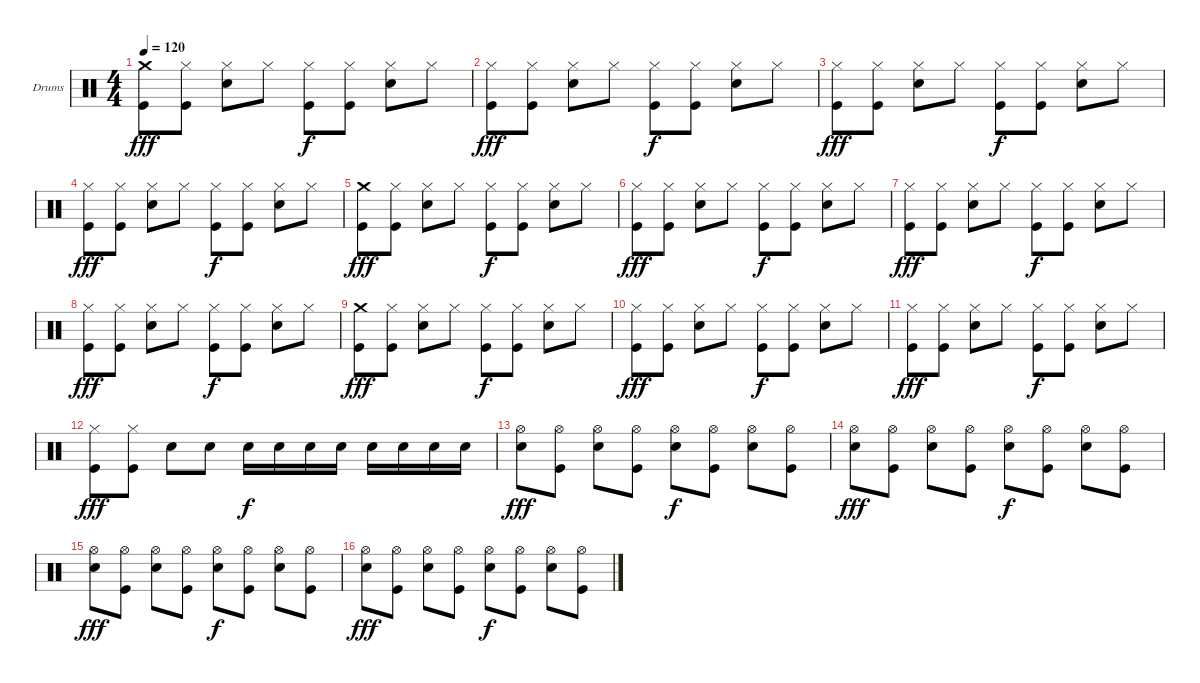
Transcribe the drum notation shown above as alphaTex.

\defaultSystemsLayout 4
\bracketExtendMode groupsimilarinstruments
\firstSystemTrackNameOrientation horizontal
\otherSystemsTrackNameOrientation horizontal
\track ("Drumkit" "Drums") {instrument percussion}
\staff {score}
\articulation defaults
\ts (4 4)
\tempo 120
\clef neutral
\ks c
("Crash medium (hit)" "Kick (hit)").8{dy fff} ("Hi-Hat (closed)" "Kick (hit)").8 ("Hi-Hat (closed)" "Snare (hit) 2").8 "Hi-Hat (closed)".8 ("Hi-Hat (closed)" "Kick (hit)").8{dy f} ("Hi-Hat (closed)" "Kick (hit)").8 ("Hi-Hat (closed)" "Snare (hit) 2").8 "Hi-Hat (closed)".8 |
("Hi-Hat (closed)" "Kick (hit)").8{dy fff} ("Hi-Hat (closed)" "Kick (hit)").8 ("Hi-Hat (closed)" "Snare (hit) 2").8 "Hi-Hat (closed)".8 ("Hi-Hat (closed)" "Kick (hit)").8{dy f} ("Hi-Hat (closed)" "Kick (hit)").8 ("Hi-Hat (closed)" "Snare (hit) 2").8 "Hi-Hat (closed)".8 |
("Hi-Hat (closed)" "Kick (hit)").8{dy fff} ("Hi-Hat (closed)" "Kick (hit)").8 ("Hi-Hat (closed)" "Snare (hit) 2").8 "Hi-Hat (closed)".8 ("Hi-Hat (closed)" "Kick (hit)").8{dy f} ("Hi-Hat (closed)" "Kick (hit)").8 ("Hi-Hat (closed)" "Snare (hit) 2").8 "Hi-Hat (closed)".8 |
("Hi-Hat (closed)" "Kick (hit)").8{dy fff} ("Hi-Hat (closed)" "Kick (hit)").8 ("Hi-Hat (closed)" "Snare (hit) 2").8 "Hi-Hat (closed)".8 ("Hi-Hat (closed)" "Kick (hit)").8{dy f} ("Hi-Hat (closed)" "Kick (hit)").8 ("Hi-Hat (closed)" "Snare (hit) 2").8 "Hi-Hat (closed)".8 |
("Crash medium (hit)" "Kick (hit)").8{dy fff} ("Hi-Hat (closed)" "Kick (hit)").8 ("Hi-Hat (closed)" "Snare (hit) 2").8 "Hi-Hat (closed)".8 ("Hi-Hat (closed)" "Kick (hit)").8{dy f} ("Hi-Hat (closed)" "Kick (hit)").8 ("Hi-Hat (closed)" "Snare (hit) 2").8 "Hi-Hat (closed)".8 |
("Hi-Hat (closed)" "Kick (hit)").8{dy fff} ("Hi-Hat (closed)" "Kick (hit)").8 ("Hi-Hat (closed)" "Snare (hit) 2").8 "Hi-Hat (closed)".8 ("Hi-Hat (closed)" "Kick (hit)").8{dy f} ("Hi-Hat (closed)" "Kick (hit)").8 ("Hi-Hat (closed)" "Snare (hit) 2").8 "Hi-Hat (closed)".8 |
("Hi-Hat (closed)" "Kick (hit)").8{dy fff} ("Hi-Hat (closed)" "Kick (hit)").8 ("Hi-Hat (closed)" "Snare (hit) 2").8 "Hi-Hat (closed)".8 ("Hi-Hat (closed)" "Kick (hit)").8{dy f} ("Hi-Hat (closed)" "Kick (hit)").8 ("Hi-Hat (closed)" "Snare (hit) 2").8 "Hi-Hat (closed)".8 |
("Hi-Hat (closed)" "Kick (hit)").8{dy fff} ("Hi-Hat (closed)" "Kick (hit)").8 ("Hi-Hat (closed)" "Snare (hit) 2").8 "Hi-Hat (closed)".8 ("Hi-Hat (closed)" "Kick (hit)").8{dy f} ("Hi-Hat (closed)" "Kick (hit)").8 ("Hi-Hat (closed)" "Snare (hit) 2").8 "Hi-Hat (closed)".8 |
("Crash medium (hit)" "Kick (hit)").8{dy fff} ("Hi-Hat (closed)" "Kick (hit)").8 ("Hi-Hat (closed)" "Snare (hit) 2").8 "Hi-Hat (closed)".8 ("Hi-Hat (closed)" "Kick (hit)").8{dy f} ("Hi-Hat (closed)" "Kick (hit)").8 ("Hi-Hat (closed)" "Snare (hit) 2").8 "Hi-Hat (closed)".8 |
("Hi-Hat (closed)" "Kick (hit)").8{dy fff} ("Hi-Hat (closed)" "Kick (hit)").8 ("Hi-Hat (closed)" "Snare (hit) 2").8 "Hi-Hat (closed)".8 ("Hi-Hat (closed)" "Kick (hit)").8{dy f} ("Hi-Hat (closed)" "Kick (hit)").8 ("Hi-Hat (closed)" "Snare (hit) 2").8 "Hi-Hat (closed)".8 |
("Hi-Hat (closed)" "Kick (hit)").8{dy fff} ("Hi-Hat (closed)" "Kick (hit)").8 ("Hi-Hat (closed)" "Snare (hit) 2").8 "Hi-Hat (closed)".8 ("Hi-Hat (closed)" "Kick (hit)").8{dy f} ("Hi-Hat (closed)" "Kick (hit)").8 ("Hi-Hat (closed)" "Snare (hit) 2").8 "Hi-Hat (closed)".8 |
("Hi-Hat (closed)" "Kick (hit)").8{dy fff} ("Hi-Hat (closed)" "Kick (hit)").8 "Snare (hit) 2".8 "Snare (hit) 2".8 "Snare (hit) 2".16{dy f} "Snare (hit) 2".16 "Snare (hit) 2".16 "Snare (hit) 2".16 "Snare (hit) 2".16 "Snare (hit) 2".16 "Snare (hit) 2".16 "Snare (hit) 2".16 |
("Hi-Hat (open)" "Snare (hit) 2").8{dy fff} ("Hi-Hat (open)" "Kick (hit)").8 ("Hi-Hat (open)" "Snare (hit) 2").8 ("Hi-Hat (open)" "Kick (hit)").8 ("Hi-Hat (open)" "Snare (hit) 2").8{dy f} ("Hi-Hat (open)" "Kick (hit)").8 ("Hi-Hat (open)" "Snare (hit) 2").8 ("Hi-Hat (open)" "Kick (hit)").8 |
("Hi-Hat (open)" "Snare (hit) 2").8{dy fff} ("Hi-Hat (open)" "Kick (hit)").8 ("Hi-Hat (open)" "Snare (hit) 2").8 ("Hi-Hat (open)" "Kick (hit)").8 ("Hi-Hat (open)" "Snare (hit) 2").8{dy f} ("Hi-Hat (open)" "Kick (hit)").8 ("Hi-Hat (open)" "Snare (hit) 2").8 ("Hi-Hat (open)" "Kick (hit)").8 |
("Hi-Hat (open)" "Snare (hit) 2").8{dy fff} ("Hi-Hat (open)" "Kick (hit)").8 ("Hi-Hat (open)" "Snare (hit) 2").8 ("Hi-Hat (open)" "Kick (hit)").8 ("Hi-Hat (open)" "Snare (hit) 2").8{dy f} ("Hi-Hat (open)" "Kick (hit)").8 ("Hi-Hat (open)" "Snare (hit) 2").8 ("Hi-Hat (open)" "Kick (hit)").8 |
("Hi-Hat (open)" "Snare (hit) 2").8{dy fff} ("Hi-Hat (open)" "Kick (hit)").8 ("Hi-Hat (open)" "Snare (hit) 2").8 ("Hi-Hat (open)" "Kick (hit)").8 ("Hi-Hat (open)" "Snare (hit) 2").8{dy f} ("Hi-Hat (open)" "Kick (hit)").8 ("Hi-Hat (open)" "Snare (hit) 2").8 ("Hi-Hat (open)" "Kick (hit)").8
